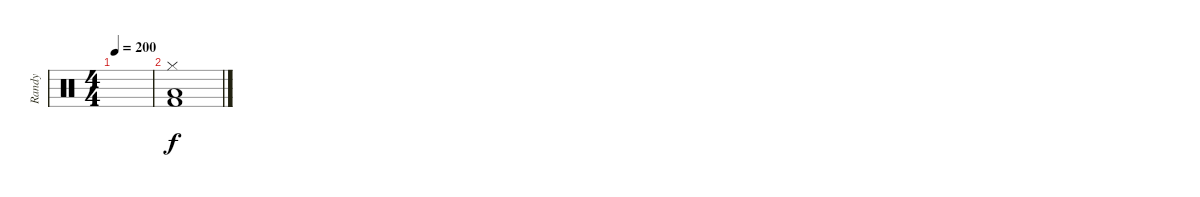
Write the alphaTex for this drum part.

\track ("Randy" "Randy") {instrument percussion}
\staff {score}
\articulation defaults
\ts (4 4)
\tempo 200
\clef neutral
\ks c
|
("Kick (hit) 2" "Low Tom (hit)" "Hi-Hat (closed)").1
